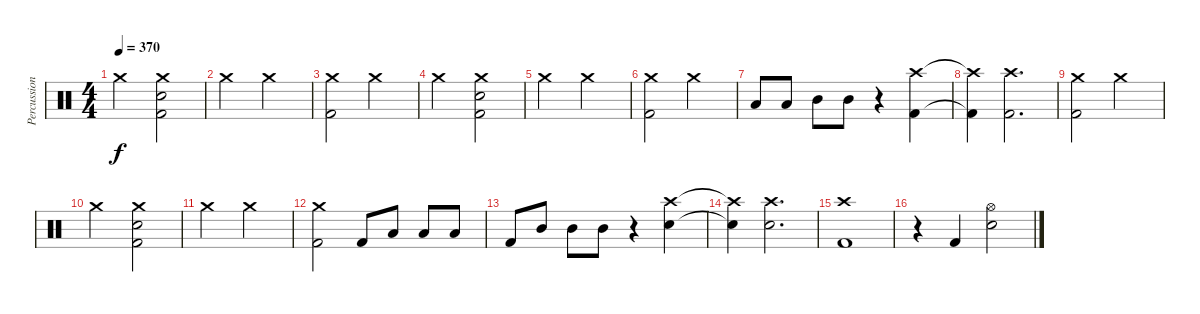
\track ("Percussions" "Percussion") {instrument percussion}
\staff {score}
\articulation defaults
\ts (4 4)
\tempo 370
\clef neutral
\ks c "Crash medium (hit)".2{dy f}
("Crash medium (hit)" "Kick (hit) 2" "Snare (hit) 2").2 |
"Crash medium (hit)".2 "Crash medium (hit)".2 |
("Crash medium (hit)" "Kick (hit) 2").2 "Crash medium (hit)".2 |
"Crash medium (hit)".2 ("Crash medium (hit)" "Kick (hit) 2" "Snare (hit) 2").2 |
"Crash medium (hit)".2 "Crash medium (hit)".2 |
("Crash medium (hit)" "Kick (hit) 2").2 "Crash medium (hit)".2 |
"Low Tom (hit)".8 "Low Tom (hit)".8 "Mid Tom (hit)".8 "Mid Tom (hit)".8 r.4 ("Crash high (hit)" "Kick (hit) 2").4 |
("Crash high (hit)"{t} "Kick (hit) 2"{t}).4 ("Crash high (hit)" "Kick (hit) 2").2{d} |
("Crash medium (hit)" "Kick (hit) 2").2 "Crash medium (hit)".2 |
"Crash medium (hit)".2 ("Crash medium (hit)" "Kick (hit) 2" "Snare (hit) 2").2 |
"Crash medium (hit)".2 "Crash medium (hit)".2 |
("Crash medium (hit)" "Kick (hit) 2").2 "Kick (hit) 2".8 "Low Tom (hit)".8 "Low Tom (hit)".8 "Low Tom (hit)".8 |
"Kick (hit) 2".8 "Mid Tom (hit)".8 "Mid Tom (hit)".8 "Mid Tom (hit)".8 r.4 ("Crash high (hit)" "Snare (hit) 2").4 |
("Crash high (hit)"{t} "Snare (hit) 2"{t}).4 ("Crash high (hit)" "Snare (hit) 2").2{d} |
("Crash high (hit)" "Kick (hit) 2").1 |
r.4 "Kick (hit) 2".4 ("Hi-Hat (open)" "Snare (hit) 2").2
